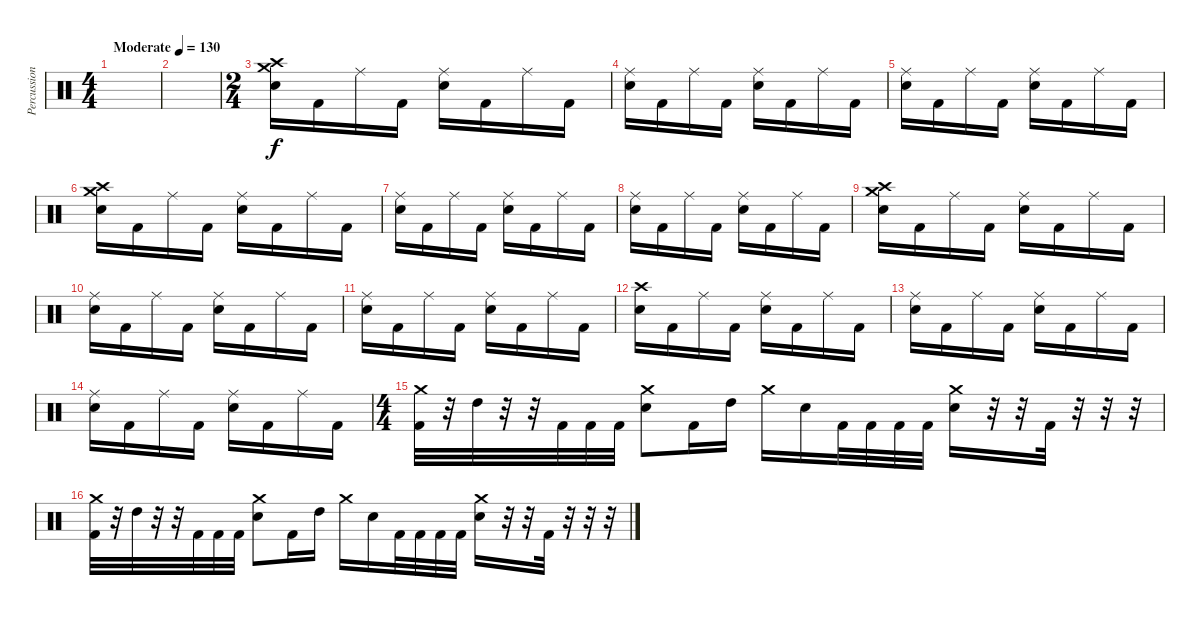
\track ("Percussion" "Percussion") {instrument percussion}
\staff {score}
\articulation defaults
\ts (4 4)
\tempo (130 "Moderate")
\clef neutral
\ks c
|
|
\ts (2 4)
("Crash medium (hit)" "Crash high (hit)" "Snare (hit) 2").16 "Kick (hit) 2".16 "Ride (middle)".16 "Kick (hit) 2".16 ("Ride (middle)" "Snare (hit) 2").16 "Kick (hit) 2".16 "Ride (middle)".16 "Kick (hit) 2".16 |
("Ride (middle)" "Snare (hit) 2").16 "Kick (hit) 2".16 "Ride (middle)".16 "Kick (hit) 2".16 ("Ride (middle)" "Snare (hit) 2").16 "Kick (hit) 2".16 "Ride (middle)".16 "Kick (hit) 2".16 |
("Ride (middle)" "Snare (hit) 2").16 "Kick (hit) 2".16 "Ride (middle)".16 "Kick (hit) 2".16 ("Ride (middle)" "Snare (hit) 2").16 "Kick (hit) 2".16 "Ride (middle)".16 "Kick (hit) 2".16 |
("Crash medium (hit)" "Crash high (hit)" "Snare (hit) 2").16 "Kick (hit) 2".16 "Ride (middle)".16 "Kick (hit) 2".16 ("Ride (middle)" "Snare (hit) 2").16 "Kick (hit) 2".16 "Ride (middle)".16 "Kick (hit) 2".16 |
("Ride (middle)" "Snare (hit) 2").16 "Kick (hit) 2".16 "Ride (middle)".16 "Kick (hit) 2".16 ("Ride (middle)" "Snare (hit) 2").16 "Kick (hit) 2".16 "Ride (middle)".16 "Kick (hit) 2".16 |
("Ride (middle)" "Snare (hit) 2").16 "Kick (hit) 2".16 "Ride (middle)".16 "Kick (hit) 2".16 ("Ride (middle)" "Snare (hit) 2").16 "Kick (hit) 2".16 "Ride (middle)".16 "Kick (hit) 2".16 |
("Crash medium (hit)" "Crash high (hit)" "Snare (hit) 2").16 "Kick (hit) 2".16 "Ride (middle)".16 "Kick (hit) 2".16 ("Ride (middle)" "Snare (hit) 2").16 "Kick (hit) 2".16 "Ride (middle)".16 "Kick (hit) 2".16 |
("Ride (middle)" "Snare (hit) 2").16 "Kick (hit) 2".16 "Ride (middle)".16 "Kick (hit) 2".16 ("Ride (middle)" "Snare (hit) 2").16 "Kick (hit) 2".16 "Ride (middle)".16 "Kick (hit) 2".16 |
("Ride (middle)" "Snare (hit) 2").16 "Kick (hit) 2".16 "Ride (middle)".16 "Kick (hit) 2".16 ("Ride (middle)" "Snare (hit) 2").16 "Kick (hit) 2".16 "Ride (middle)".16 "Kick (hit) 2".16 |
("Crash high (hit)" "Snare (hit) 2").16 "Kick (hit) 2".16 "Ride (middle)".16 "Kick (hit) 2".16 ("Ride (middle)" "Snare (hit) 2").16 "Kick (hit) 2".16 "Ride (middle)".16 "Kick (hit) 2".16 |
("Ride (middle)" "Snare (hit) 2").16 "Kick (hit) 2".16 "Ride (middle)".16 "Kick (hit) 2".16 ("Ride (middle)" "Snare (hit) 2").16 "Kick (hit) 2".16 "Ride (middle)".16 "Kick (hit) 2".16 |
("Ride (middle)" "Snare (hit) 2").16 "Kick (hit) 2".16 "Ride (middle)".16 "Kick (hit) 2".16 ("Ride (middle)" "Snare (hit) 2").16 "Kick (hit) 2".16 "Ride (middle)".16 "Kick (hit) 2".16 |
\ts (4 4)
("Crash medium (hit)" "Kick (hit) 2").32 r.32 "High Tom (hit)".32 r.32 r.32 "Kick (hit) 2".32 "Kick (hit) 2".32 "Kick (hit) 2".32 ("Crash medium (hit)" "Snare (hit) 2").8 "Kick (hit) 2".16 "High Tom (hit)".16 "Crash medium (hit)".16 "Snare (hit) 2".16 "Kick (hit) 2".32 "Kick (hit) 2".32 "Kick (hit) 2".32 "Kick (hit) 2".32 ("Crash medium (hit)" "Snare (hit) 2").16 r.32 r.32 "Kick (hit) 2".32 r.32 r.32 r.32 |
("Crash medium (hit)" "Kick (hit) 2").32 r.32 "High Tom (hit)".32 r.32 r.32 "Kick (hit) 2".32 "Kick (hit) 2".32 "Kick (hit) 2".32 ("Crash medium (hit)" "Snare (hit) 2").8 "Kick (hit) 2".16 "High Tom (hit)".16 "Crash medium (hit)".16 "Snare (hit) 2".16 "Kick (hit) 2".32 "Kick (hit) 2".32 "Kick (hit) 2".32 "Kick (hit) 2".32 ("Crash medium (hit)" "Snare (hit) 2").16 r.32 r.32 "Kick (hit) 2".32 r.32 r.32 r.32
